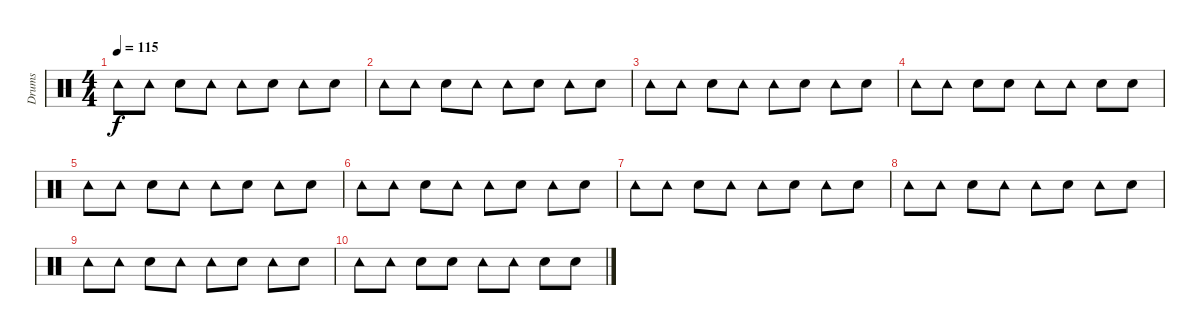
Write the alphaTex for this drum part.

\track ("Drums" "Drums") {instrument percussion}
\staff {score}
\articulation defaults
\ts (4 4)
\tempo 115
\clef neutral
\ks c "Tambourine (hit)".8{dy f} "Tambourine (hit)".8 "Electric Snare (hit)".8 "Tambourine (hit)".8 "Tambourine (hit)".8 "Electric Snare (hit)".8 "Tambourine (hit)".8 "Electric Snare (hit)".8
|
"Tambourine (hit)".8 "Tambourine (hit)".8 "Electric Snare (hit)".8 "Tambourine (hit)".8 "Tambourine (hit)".8 "Electric Snare (hit)".8 "Tambourine (hit)".8 "Electric Snare (hit)".8 |
"Tambourine (hit)".8 "Tambourine (hit)".8 "Electric Snare (hit)".8 "Tambourine (hit)".8 "Tambourine (hit)".8 "Electric Snare (hit)".8 "Tambourine (hit)".8 "Electric Snare (hit)".8 |
"Tambourine (hit)".8 "Tambourine (hit)".8 "Snare (hit) 2".8 "Electric Snare (hit)".8 "Tambourine (hit)".8 "Tambourine (hit)".8 "Electric Snare (hit)".8 "Snare (hit) 2".8 |
"Tambourine (hit)".8 "Tambourine (hit)".8 "Electric Snare (hit)".8 "Tambourine (hit)".8 "Tambourine (hit)".8 "Electric Snare (hit)".8 "Tambourine (hit)".8 "Electric Snare (hit)".8 |
"Tambourine (hit)".8 "Tambourine (hit)".8 "Electric Snare (hit)".8 "Tambourine (hit)".8 "Tambourine (hit)".8 "Electric Snare (hit)".8 "Tambourine (hit)".8 "Electric Snare (hit)".8 |
"Tambourine (hit)".8 "Tambourine (hit)".8 "Electric Snare (hit)".8 "Tambourine (hit)".8 "Tambourine (hit)".8 "Electric Snare (hit)".8 "Tambourine (hit)".8 "Electric Snare (hit)".8 |
"Tambourine (hit)".8 "Tambourine (hit)".8 "Electric Snare (hit)".8 "Tambourine (hit)".8 "Tambourine (hit)".8 "Electric Snare (hit)".8 "Tambourine (hit)".8 "Electric Snare (hit)".8 |
"Tambourine (hit)".8 "Tambourine (hit)".8 "Electric Snare (hit)".8 "Tambourine (hit)".8 "Tambourine (hit)".8 "Electric Snare (hit)".8 "Tambourine (hit)".8 "Electric Snare (hit)".8 |
"Tambourine (hit)".8 "Tambourine (hit)".8 "Snare (hit) 2".8 "Electric Snare (hit)".8 "Tambourine (hit)".8 "Tambourine (hit)".8 "Electric Snare (hit)".8 "Snare (hit) 2".8
